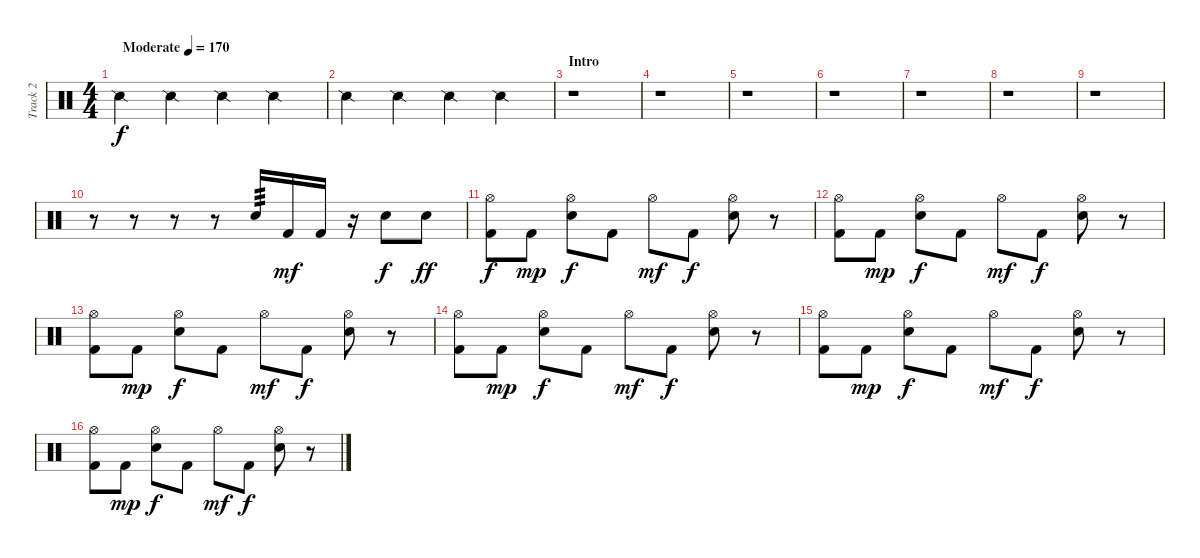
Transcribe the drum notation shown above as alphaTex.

\track ("Track 2" "Track 2") {instrument percussion}
\staff {score}
\articulation defaults
\ts (4 4)
\tempo (170 "Moderate")
\clef neutral
\ks c "Snare (side stick) 2".4{dy f} "Snare (side stick) 2".4 "Snare (side stick) 2".4 "Snare (side stick) 2".4
|
"Snare (side stick) 2".4 "Snare (side stick) 2".4 "Snare (side stick) 2".4 "Snare (side stick) 2".4 |
\section ("" "Intro")
r.1 |
r.1 |
r.1 |
r.1 |
r.1 |
r.1 |
r.1 |
r.8 r.8 r.8 r.8 "Electric Snare (hit)".16{tp 3} "Kick (hit) 2".16{dy mf} "Kick (hit) 2".16 r.16 "Electric Snare (hit)".8{dy f} "Electric Snare (hit)".8{dy ff} |
("Hi-Hat (open)" "Kick (hit) 2").8{dy f} "Kick (hit) 2".8{dy mp} ("Hi-Hat (open)" "Electric Snare (hit)").8{dy f} "Kick (hit) 2".8 "Hi-Hat (open)".8{dy mf} "Kick (hit) 2".8{dy f} ("Hi-Hat (open)" "Electric Snare (hit)").8 r.8 |
("Hi-Hat (open)" "Kick (hit) 2").8 "Kick (hit) 2".8{dy mp} ("Hi-Hat (open)" "Electric Snare (hit)").8{dy f} "Kick (hit) 2".8 "Hi-Hat (open)".8{dy mf} "Kick (hit) 2".8{dy f} ("Hi-Hat (open)" "Electric Snare (hit)").8 r.8 |
("Hi-Hat (open)" "Kick (hit) 2").8 "Kick (hit) 2".8{dy mp} ("Hi-Hat (open)" "Electric Snare (hit)").8{dy f} "Kick (hit) 2".8 "Hi-Hat (open)".8{dy mf} "Kick (hit) 2".8{dy f} ("Hi-Hat (open)" "Electric Snare (hit)").8 r.8 |
("Hi-Hat (open)" "Kick (hit) 2").8 "Kick (hit) 2".8{dy mp} ("Hi-Hat (open)" "Electric Snare (hit)").8{dy f} "Kick (hit) 2".8 "Hi-Hat (open)".8{dy mf} "Kick (hit) 2".8{dy f} ("Hi-Hat (open)" "Electric Snare (hit)").8 r.8 |
("Hi-Hat (open)" "Kick (hit) 2").8 "Kick (hit) 2".8{dy mp} ("Hi-Hat (open)" "Electric Snare (hit)").8{dy f} "Kick (hit) 2".8 "Hi-Hat (open)".8{dy mf} "Kick (hit) 2".8{dy f} ("Hi-Hat (open)" "Electric Snare (hit)").8 r.8 |
("Hi-Hat (open)" "Kick (hit) 2").8 "Kick (hit) 2".8{dy mp} ("Hi-Hat (open)" "Electric Snare (hit)").8{dy f} "Kick (hit) 2".8 "Hi-Hat (open)".8{dy mf} "Kick (hit) 2".8{dy f} ("Hi-Hat (open)" "Electric Snare (hit)").8 r.8
